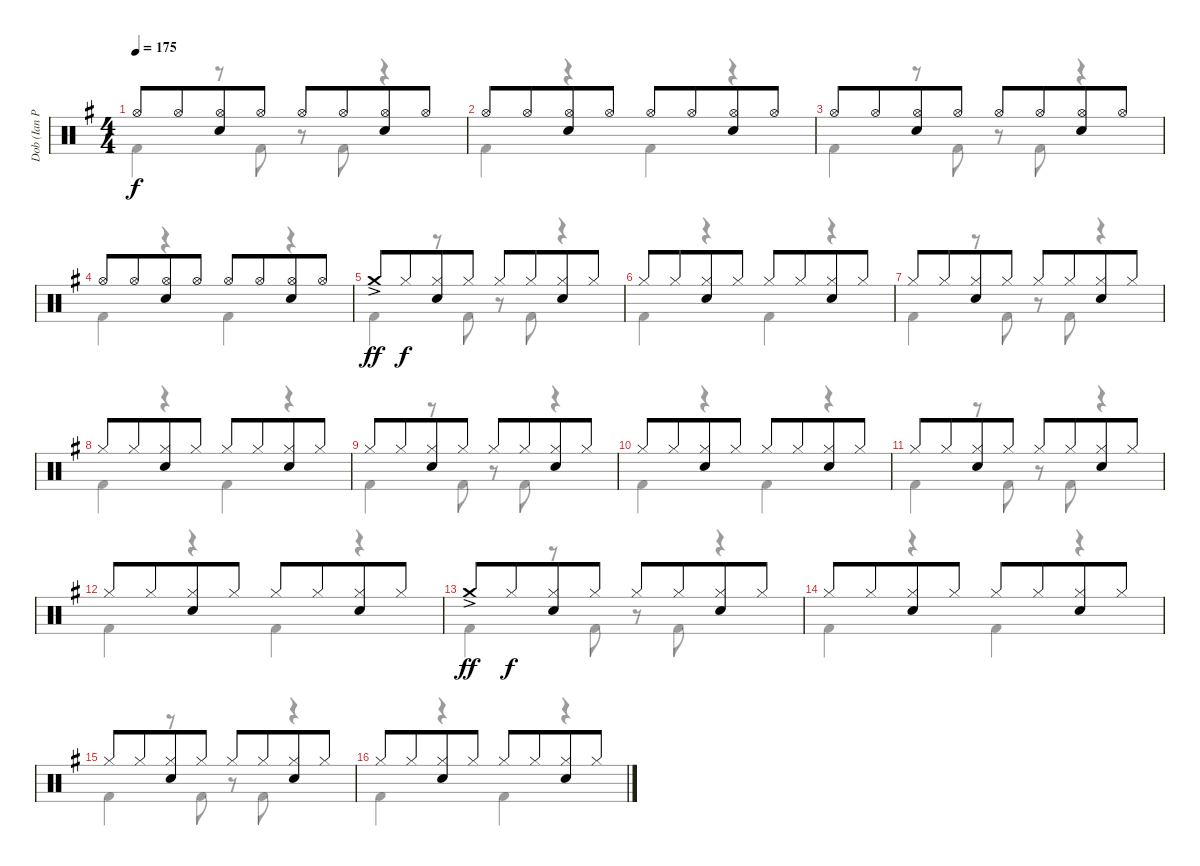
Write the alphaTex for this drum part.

\track ("Dob (Ian Paice)" "Dob (Ian P") {instrument percussion}
\staff {score}
\articulation defaults
\voice
\ts (4 4)
\tempo 175
\clef neutral
\ks g "Hi-Hat (open)".8{dy f} "Hi-Hat (open)".8{beam merge}
("Hi-Hat (open)" "Electric Snare (hit)").8 "Hi-Hat (open)".8 "Hi-Hat (open)".8 "Hi-Hat (open)".8{beam merge} ("Hi-Hat (open)" "Electric Snare (hit)").8 "Hi-Hat (open)".8 |
"Hi-Hat (open)".8 "Hi-Hat (open)".8{beam merge} ("Hi-Hat (open)" "Electric Snare (hit)").8 "Hi-Hat (open)".8 "Hi-Hat (open)".8 "Hi-Hat (open)".8{beam merge} ("Hi-Hat (open)" "Electric Snare (hit)").8 "Hi-Hat (open)".8 |
"Hi-Hat (open)".8 "Hi-Hat (open)".8{beam merge} ("Hi-Hat (open)" "Electric Snare (hit)").8 "Hi-Hat (open)".8 "Hi-Hat (open)".8 "Hi-Hat (open)".8{beam merge} ("Hi-Hat (open)" "Electric Snare (hit)").8 "Hi-Hat (open)".8 |
"Hi-Hat (open)".8 "Hi-Hat (open)".8{beam merge} ("Hi-Hat (open)" "Electric Snare (hit)").8 "Hi-Hat (open)".8 "Hi-Hat (open)".8 "Hi-Hat (open)".8{beam merge} ("Hi-Hat (open)" "Electric Snare (hit)").8 "Hi-Hat (open)".8 |
"Crash medium (hit)"{ac}.8{dy ff} "Hi-Hat (closed)".8{dy f beam merge} ("Hi-Hat (closed)" "Electric Snare (hit)").8 "Hi-Hat (closed)".8 "Hi-Hat (closed)".8 "Hi-Hat (closed)".8{beam merge} ("Hi-Hat (closed)" "Electric Snare (hit)").8 "Hi-Hat (closed)".8 |
"Hi-Hat (closed)".8 "Hi-Hat (closed)".8{beam merge} ("Hi-Hat (closed)" "Electric Snare (hit)").8 "Hi-Hat (closed)".8 "Hi-Hat (closed)".8 "Hi-Hat (closed)".8{beam merge} ("Hi-Hat (closed)" "Electric Snare (hit)").8 "Hi-Hat (closed)".8 |
"Hi-Hat (closed)".8 "Hi-Hat (closed)".8{beam merge} ("Hi-Hat (closed)" "Electric Snare (hit)").8 "Hi-Hat (closed)".8 "Hi-Hat (closed)".8 "Hi-Hat (closed)".8{beam merge} ("Hi-Hat (closed)" "Electric Snare (hit)").8 "Hi-Hat (closed)".8 |
"Hi-Hat (closed)".8 "Hi-Hat (closed)".8{beam merge} ("Hi-Hat (closed)" "Electric Snare (hit)").8 "Hi-Hat (closed)".8 "Hi-Hat (closed)".8 "Hi-Hat (closed)".8{beam merge} ("Hi-Hat (closed)" "Electric Snare (hit)").8 "Hi-Hat (closed)".8 |
"Hi-Hat (closed)".8 "Hi-Hat (closed)".8{beam merge} ("Hi-Hat (closed)" "Electric Snare (hit)").8 "Hi-Hat (closed)".8 "Hi-Hat (closed)".8 "Hi-Hat (closed)".8{beam merge} ("Hi-Hat (closed)" "Electric Snare (hit)").8 "Hi-Hat (closed)".8 |
"Hi-Hat (closed)".8 "Hi-Hat (closed)".8{beam merge} ("Hi-Hat (closed)" "Electric Snare (hit)").8 "Hi-Hat (closed)".8 "Hi-Hat (closed)".8 "Hi-Hat (closed)".8{beam merge} ("Hi-Hat (closed)" "Electric Snare (hit)").8 "Hi-Hat (closed)".8 |
"Hi-Hat (closed)".8 "Hi-Hat (closed)".8{beam merge} ("Hi-Hat (closed)" "Electric Snare (hit)").8 "Hi-Hat (closed)".8 "Hi-Hat (closed)".8 "Hi-Hat (closed)".8{beam merge} ("Hi-Hat (closed)" "Electric Snare (hit)").8 "Hi-Hat (closed)".8 |
"Hi-Hat (closed)".8 "Hi-Hat (closed)".8{beam merge} ("Hi-Hat (closed)" "Electric Snare (hit)").8 "Hi-Hat (closed)".8 "Hi-Hat (closed)".8 "Hi-Hat (closed)".8{beam merge} ("Hi-Hat (closed)" "Electric Snare (hit)").8 "Hi-Hat (closed)".8 |
"Crash medium (hit)"{ac}.8{dy ff} "Hi-Hat (closed)".8{dy f beam merge} ("Hi-Hat (closed)" "Electric Snare (hit)").8 "Hi-Hat (closed)".8 "Hi-Hat (closed)".8 "Hi-Hat (closed)".8{beam merge} ("Hi-Hat (closed)" "Electric Snare (hit)").8 "Hi-Hat (closed)".8 |
"Hi-Hat (closed)".8 "Hi-Hat (closed)".8{beam merge} ("Hi-Hat (closed)" "Electric Snare (hit)").8 "Hi-Hat (closed)".8 "Hi-Hat (closed)".8 "Hi-Hat (closed)".8{beam merge} ("Hi-Hat (closed)" "Electric Snare (hit)").8 "Hi-Hat (closed)".8 |
"Hi-Hat (closed)".8 "Hi-Hat (closed)".8{beam merge} ("Hi-Hat (closed)" "Electric Snare (hit)").8 "Hi-Hat (closed)".8 "Hi-Hat (closed)".8 "Hi-Hat (closed)".8{beam merge} ("Hi-Hat (closed)" "Electric Snare (hit)").8 "Hi-Hat (closed)".8 |
"Hi-Hat (closed)".8 "Hi-Hat (closed)".8{beam merge} ("Hi-Hat (closed)" "Electric Snare (hit)").8 "Hi-Hat (closed)".8 "Hi-Hat (closed)".8 "Hi-Hat (closed)".8{beam merge} ("Hi-Hat (closed)" "Electric Snare (hit)").8 "Hi-Hat (closed)".8
\voice
\clef neutral
\ottava regular
\simile none
\ks g "Kick (hit) 2".4{dy f}
r.8 "Kick (hit) 2".8 r.8 "Kick (hit) 2".8 r.4 |
"Kick (hit) 2".4 r.4 "Kick (hit) 2".4 r.4 |
"Kick (hit) 2".4 r.8 "Kick (hit) 2".8 r.8 "Kick (hit) 2".8 r.4 |
"Kick (hit) 2".4 r.4 "Kick (hit) 2".4 r.4 |
"Kick (hit) 2".4 r.8 "Kick (hit) 2".8 r.8 "Kick (hit) 2".8 r.4 |
"Kick (hit) 2".4 r.4 "Kick (hit) 2".4 r.4 |
"Kick (hit) 2".4 r.8 "Kick (hit) 2".8 r.8 "Kick (hit) 2".8 r.4 |
"Kick (hit) 2".4 r.4 "Kick (hit) 2".4 r.4 |
"Kick (hit) 2".4 r.8 "Kick (hit) 2".8 r.8 "Kick (hit) 2".8 r.4 |
"Kick (hit) 2".4 r.4 "Kick (hit) 2".4 r.4 |
"Kick (hit) 2".4 r.8 "Kick (hit) 2".8 r.8 "Kick (hit) 2".8 r.4 |
"Kick (hit) 2".4 r.4 "Kick (hit) 2".4 r.4 |
"Kick (hit) 2".4 r.8 "Kick (hit) 2".8 r.8 "Kick (hit) 2".8 r.4 |
"Kick (hit) 2".4 r.4 "Kick (hit) 2".4 r.4 |
"Kick (hit) 2".4 r.8 "Kick (hit) 2".8 r.8 "Kick (hit) 2".8 r.4 |
"Kick (hit) 2".4 r.4 "Kick (hit) 2".4 r.4
